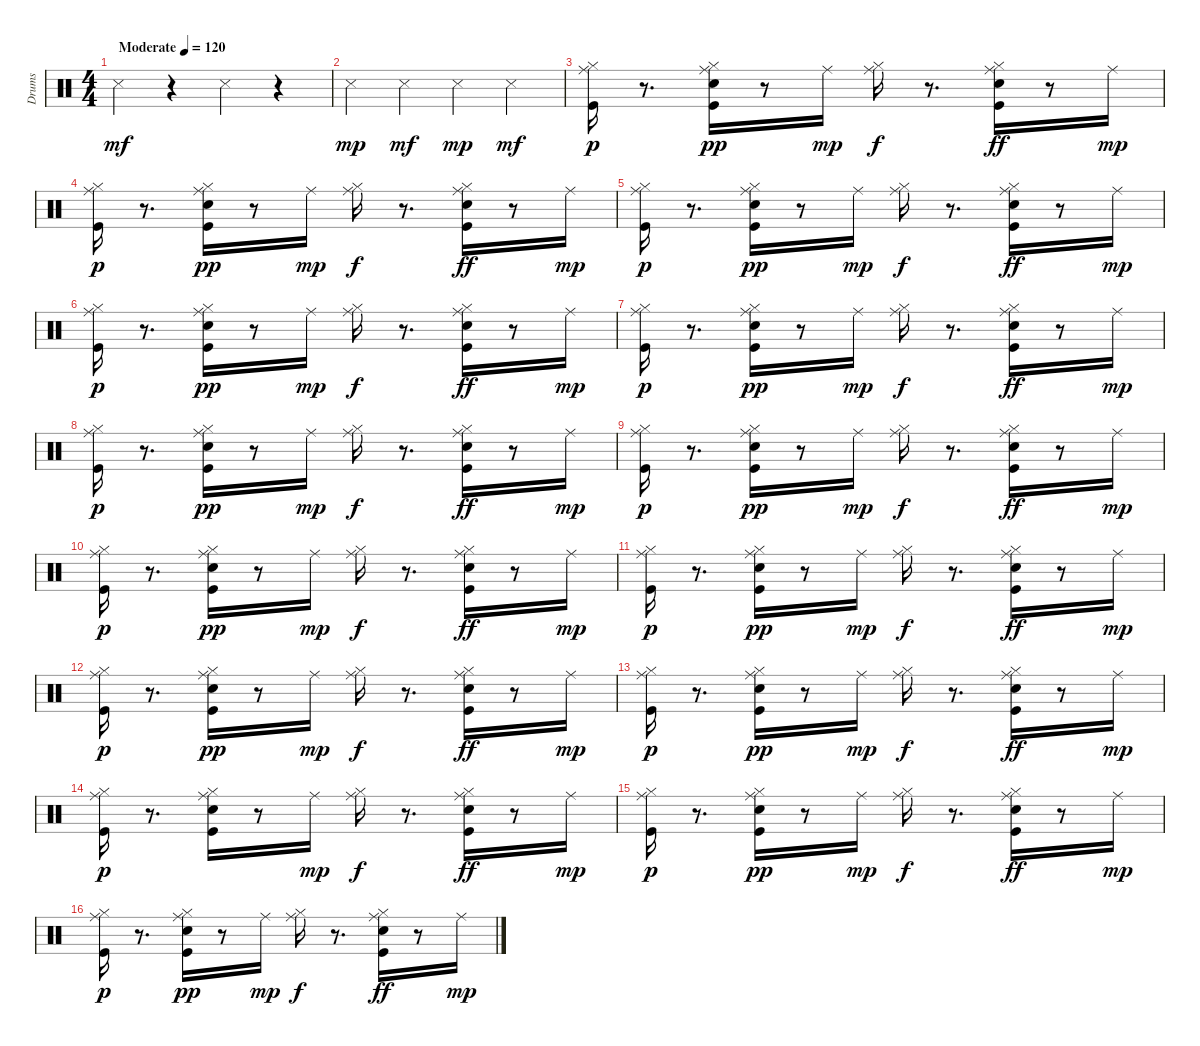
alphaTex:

\track ("Drums" "Drums") {instrument percussion}
\staff {score}
\articulation defaults
\ts (4 4)
\tempo (120 "Moderate")
\clef neutral
\ks c "Snare (side stick) 3".4{dy mf}
r.4 "Snare (side stick) 3".4 r.4 |
"Snare (side stick) 3".4{dy mp} "Snare (side stick) 3".4{dy mf} "Snare (side stick) 3".4{dy mp} "Snare (side stick) 3".4{dy mf} |
("Kick (hit)" "Hi-Hat (closed)" "Ride (middle)").16{dy p} r.8{d} ("Kick (hit)" "Snare (hit) 2" "Hi-Hat (closed)" "Ride (middle)").16{dy pp} r.8 "Ride (middle)".16{dy mp} ("Hi-Hat (closed)" "Ride (middle)").16{dy f} r.8{d} ("Kick (hit)" "Snare (hit) 2" "Hi-Hat (closed)" "Ride (middle)").16{dy ff} r.8 "Ride (middle)".16{dy mp} |
("Kick (hit)" "Hi-Hat (closed)" "Ride (middle)").16{dy p} r.8{d} ("Kick (hit)" "Snare (hit) 2" "Hi-Hat (closed)" "Ride (middle)").16{dy pp} r.8 "Ride (middle)".16{dy mp} ("Hi-Hat (closed)" "Ride (middle)").16{dy f} r.8{d} ("Kick (hit)" "Snare (hit) 2" "Hi-Hat (closed)" "Ride (middle)").16{dy ff} r.8 "Ride (middle)".16{dy mp} |
("Kick (hit)" "Hi-Hat (closed)" "Ride (middle)").16{dy p} r.8{d} ("Kick (hit)" "Snare (hit) 2" "Hi-Hat (closed)" "Ride (middle)").16{dy pp} r.8 "Ride (middle)".16{dy mp} ("Hi-Hat (closed)" "Ride (middle)").16{dy f} r.8{d} ("Kick (hit)" "Snare (hit) 2" "Hi-Hat (closed)" "Ride (middle)").16{dy ff} r.8 "Ride (middle)".16{dy mp} |
("Kick (hit)" "Hi-Hat (closed)" "Ride (middle)").16{dy p} r.8{d} ("Kick (hit)" "Snare (hit) 2" "Hi-Hat (closed)" "Ride (middle)").16{dy pp} r.8 "Ride (middle)".16{dy mp} ("Hi-Hat (closed)" "Ride (middle)").16{dy f} r.8{d} ("Kick (hit)" "Snare (hit) 2" "Hi-Hat (closed)" "Ride (middle)").16{dy ff} r.8 "Ride (middle)".16{dy mp} |
("Kick (hit)" "Hi-Hat (closed)" "Ride (middle)").16{dy p} r.8{d} ("Kick (hit)" "Snare (hit) 2" "Hi-Hat (closed)" "Ride (middle)").16{dy pp} r.8 "Ride (middle)".16{dy mp} ("Hi-Hat (closed)" "Ride (middle)").16{dy f} r.8{d} ("Kick (hit)" "Snare (hit) 2" "Hi-Hat (closed)" "Ride (middle)").16{dy ff} r.8 "Ride (middle)".16{dy mp} |
("Kick (hit)" "Hi-Hat (closed)" "Ride (middle)").16{dy p} r.8{d} ("Kick (hit)" "Snare (hit) 2" "Hi-Hat (closed)" "Ride (middle)").16{dy pp} r.8 "Ride (middle)".16{dy mp} ("Hi-Hat (closed)" "Ride (middle)").16{dy f} r.8{d} ("Kick (hit)" "Snare (hit) 2" "Hi-Hat (closed)" "Ride (middle)").16{dy ff} r.8 "Ride (middle)".16{dy mp} |
("Kick (hit)" "Hi-Hat (closed)" "Ride (middle)").16{dy p} r.8{d} ("Kick (hit)" "Snare (hit) 2" "Hi-Hat (closed)" "Ride (middle)").16{dy pp} r.8 "Ride (middle)".16{dy mp} ("Hi-Hat (closed)" "Ride (middle)").16{dy f} r.8{d} ("Kick (hit)" "Snare (hit) 2" "Hi-Hat (closed)" "Ride (middle)").16{dy ff} r.8 "Ride (middle)".16{dy mp} |
("Kick (hit)" "Hi-Hat (closed)" "Ride (middle)").16{dy p} r.8{d} ("Kick (hit)" "Snare (hit) 2" "Hi-Hat (closed)" "Ride (middle)").16{dy pp} r.8 "Ride (middle)".16{dy mp} ("Hi-Hat (closed)" "Ride (middle)").16{dy f} r.8{d} ("Kick (hit)" "Snare (hit) 2" "Hi-Hat (closed)" "Ride (middle)").16{dy ff} r.8 "Ride (middle)".16{dy mp} |
("Kick (hit)" "Hi-Hat (closed)" "Ride (middle)").16{dy p} r.8{d} ("Kick (hit)" "Snare (hit) 2" "Hi-Hat (closed)" "Ride (middle)").16{dy pp} r.8 "Ride (middle)".16{dy mp} ("Hi-Hat (closed)" "Ride (middle)").16{dy f} r.8{d} ("Kick (hit)" "Snare (hit) 2" "Hi-Hat (closed)" "Ride (middle)").16{dy ff} r.8 "Ride (middle)".16{dy mp} |
("Kick (hit)" "Hi-Hat (closed)" "Ride (middle)").16{dy p} r.8{d} ("Kick (hit)" "Snare (hit) 2" "Hi-Hat (closed)" "Ride (middle)").16{dy pp} r.8 "Ride (middle)".16{dy mp} ("Hi-Hat (closed)" "Ride (middle)").16{dy f} r.8{d} ("Kick (hit)" "Snare (hit) 2" "Hi-Hat (closed)" "Ride (middle)").16{dy ff} r.8 "Ride (middle)".16{dy mp} |
("Kick (hit)" "Hi-Hat (closed)" "Ride (middle)").16{dy p} r.8{d} ("Kick (hit)" "Snare (hit) 2" "Hi-Hat (closed)" "Ride (middle)").16{dy pp} r.8 "Ride (middle)".16{dy mp} ("Hi-Hat (closed)" "Ride (middle)").16{dy f} r.8{d} ("Kick (hit)" "Snare (hit) 2" "Hi-Hat (closed)" "Ride (middle)").16{dy ff} r.8 "Ride (middle)".16{dy mp} |
("Kick (hit)" "Hi-Hat (closed)" "Ride (middle)").16{dy p} r.8{d} ("Kick (hit)" "Snare (hit) 2" "Hi-Hat (closed)" "Ride (middle)").16 r.8 "Ride (middle)".16{dy mp} ("Hi-Hat (closed)" "Ride (middle)").16{dy f} r.8{d} ("Kick (hit)" "Snare (hit) 2" "Hi-Hat (closed)" "Ride (middle)").16{dy ff} r.8 "Ride (middle)".16{dy mp} |
("Kick (hit)" "Hi-Hat (closed)" "Ride (middle)").16{dy p} r.8{d} ("Kick (hit)" "Snare (hit) 2" "Hi-Hat (closed)" "Ride (middle)").16{dy pp} r.8 "Ride (middle)".16{dy mp} ("Hi-Hat (closed)" "Ride (middle)").16{dy f} r.8{d} ("Kick (hit)" "Snare (hit) 2" "Hi-Hat (closed)" "Ride (middle)").16{dy ff} r.8 "Ride (middle)".16{dy mp} |
("Kick (hit)" "Hi-Hat (closed)" "Ride (middle)").16{dy p} r.8{d} ("Kick (hit)" "Snare (hit) 2" "Hi-Hat (closed)" "Ride (middle)").16{dy pp} r.8 "Ride (middle)".16{dy mp} ("Hi-Hat (closed)" "Ride (middle)").16{dy f} r.8{d} ("Kick (hit)" "Snare (hit) 2" "Hi-Hat (closed)" "Ride (middle)").16{dy ff} r.8 "Ride (middle)".16{dy mp}
